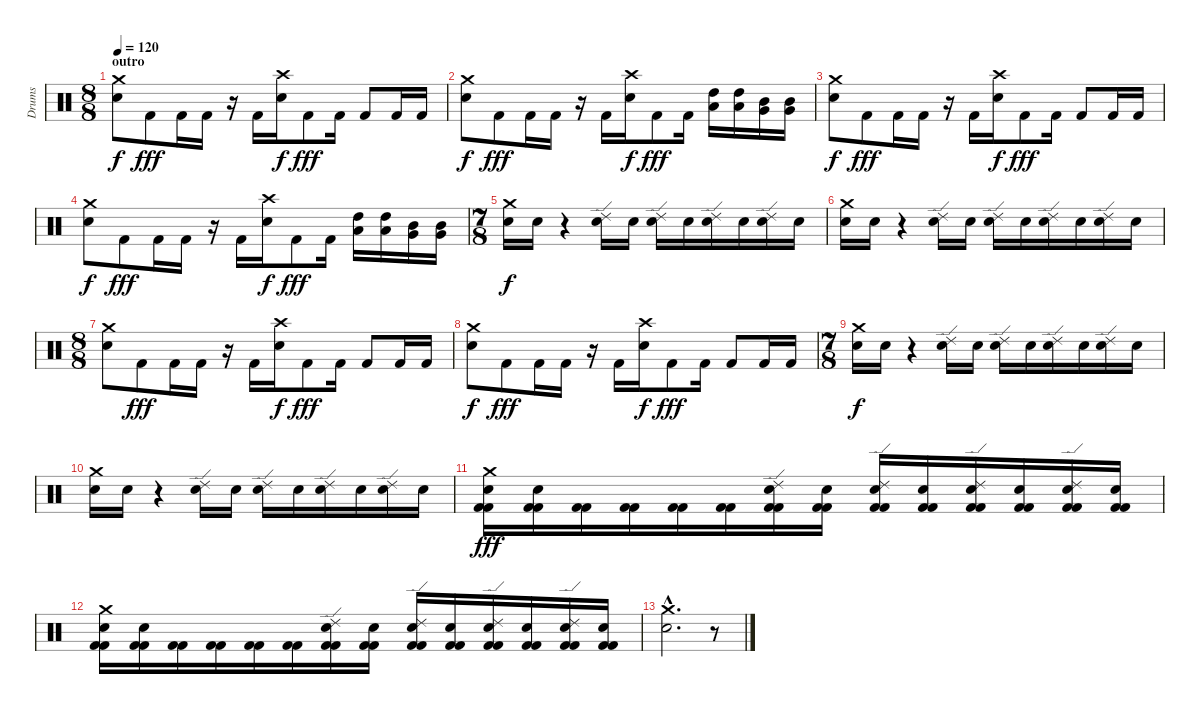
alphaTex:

\track ("Drums" "Drums") {instrument percussion}
\staff {score}
\articulation defaults
\ts (8 8)
\section ("" "outro")
\tempo 120
\clef neutral
\ks c
("Electric Snare (hit)" "Crash medium (hit)").8{dy f} "Kick (hit) 2".8{dy fff} "Kick (hit) 2".16 "Kick (hit) 2".16 r.16 "Kick (hit) 2".16 ("Electric Snare (hit)" "Crash high (hit)").16{dy f} "Kick (hit) 2".8{dy fff} "Kick (hit) 2".16 "Kick (hit) 2".8 "Kick (hit) 2".16 "Kick (hit) 2".16 |
("Electric Snare (hit)" "Crash medium (hit)").8{dy f} "Kick (hit) 2".8{dy fff} "Kick (hit) 2".16 "Kick (hit) 2".16 r.16 "Kick (hit) 2".16 ("Electric Snare (hit)" "Crash high (hit)").16{dy f} "Kick (hit) 2".8{dy fff} "Kick (hit) 2".16 ("High Tom (hit)" "Low Tom (hit)").16 ("High Tom (hit)" "Low Tom (hit)").16 ("Mid Tom (hit)" "Very Low Tom (hit)").16 ("Mid Tom (hit)" "Very Low Tom (hit)").16 |
("Electric Snare (hit)" "Crash medium (hit)").8{dy f} "Kick (hit) 2".8{dy fff} "Kick (hit) 2".16 "Kick (hit) 2".16 r.16 "Kick (hit) 2".16 ("Electric Snare (hit)" "Crash high (hit)").16{dy f} "Kick (hit) 2".8{dy fff} "Kick (hit) 2".16 "Kick (hit) 2".8 "Kick (hit) 2".16 "Kick (hit) 2".16 |
("Electric Snare (hit)" "Crash medium (hit)").8{dy f} "Kick (hit) 2".8{dy fff} "Kick (hit) 2".16 "Kick (hit) 2".16 r.16 "Kick (hit) 2".16 ("Electric Snare (hit)" "Crash high (hit)").16{dy f} "Kick (hit) 2".8{dy fff} "Kick (hit) 2".16 ("High Tom (hit)" "Low Tom (hit)").16 ("High Tom (hit)" "Low Tom (hit)").16 ("Mid Tom (hit)" "Very Low Tom (hit)").16 ("Mid Tom (hit)" "Very Low Tom (hit)").16 |
\ts (7 8)
("Snare (hit) 2" "Crash medium (hit)").16{dy f} "Snare (hit) 2".16 r.4 ("Electric Snare (hit)" "Ride (edge) 2").16 "Electric Snare (hit)".16 ("Snare (hit) 2" "Ride (edge) 2").16 "Snare (hit) 2".16 ("Electric Snare (hit)" "Ride (edge) 2").16 "Electric Snare (hit)".16 ("Snare (hit) 2" "Ride (edge) 2").16 "Snare (hit) 2".16 |
("Snare (hit) 2" "Crash medium (hit)").16 "Snare (hit) 2".16 r.4 ("Electric Snare (hit)" "Ride (edge) 2").16 "Electric Snare (hit)".16 ("Snare (hit) 2" "Ride (edge) 2").16 "Snare (hit) 2".16 ("Electric Snare (hit)" "Ride (edge) 2").16 "Electric Snare (hit)".16 ("Snare (hit) 2" "Ride (edge) 2").16 "Snare (hit) 2".16 |
\ts (8 8)
("Electric Snare (hit)" "Crash medium (hit)").8 "Kick (hit) 2".8{dy fff} "Kick (hit) 2".16 "Kick (hit) 2".16 r.16 "Kick (hit) 2".16 ("Electric Snare (hit)" "Crash high (hit)").16{dy f} "Kick (hit) 2".8{dy fff} "Kick (hit) 2".16 "Kick (hit) 2".8 "Kick (hit) 2".16 "Kick (hit) 2".16 |
("Electric Snare (hit)" "Crash medium (hit)").8{dy f} "Kick (hit) 2".8{dy fff} "Kick (hit) 2".16 "Kick (hit) 2".16 r.16 "Kick (hit) 2".16 ("Electric Snare (hit)" "Crash high (hit)").16{dy f} "Kick (hit) 2".8{dy fff} "Kick (hit) 2".16 "Kick (hit) 2".8 "Kick (hit) 2".16 "Kick (hit) 2".16 |
\ts (7 8)
("Snare (hit) 2" "Crash medium (hit)").16{dy f} "Snare (hit) 2".16 r.4 ("Electric Snare (hit)" "Ride (edge) 2").16 "Electric Snare (hit)".16 ("Snare (hit) 2" "Ride (edge) 2").16 "Snare (hit) 2".16 ("Electric Snare (hit)" "Ride (edge) 2").16 "Electric Snare (hit)".16 ("Snare (hit) 2" "Ride (edge) 2").16 "Snare (hit) 2".16 |
("Snare (hit) 2" "Crash medium (hit)").16 "Snare (hit) 2".16 r.4 ("Electric Snare (hit)" "Ride (edge) 2").16 "Electric Snare (hit)".16 ("Snare (hit) 2" "Ride (edge) 2").16 "Snare (hit) 2".16 ("Electric Snare (hit)" "Ride (edge) 2").16 "Electric Snare (hit)".16 ("Snare (hit) 2" "Ride (edge) 2").16 "Snare (hit) 2".16 |
("Snare (hit) 2" "Crash medium (hit)" "Kick (hit) 2" "Kick (hit) 2").16{dy fff} ("Snare (hit) 2" "Kick (hit) 2" "Kick (hit) 2").16 ("Kick (hit) 2" "Kick (hit) 2").16 ("Kick (hit) 2" "Kick (hit) 2").16 ("Kick (hit) 2" "Kick (hit) 2").16 ("Kick (hit) 2" "Kick (hit) 2").16 ("Electric Snare (hit)" "Ride (edge) 2" "Kick (hit) 2" "Kick (hit) 2").16 ("Electric Snare (hit)" "Kick (hit) 2" "Kick (hit) 2").16 ("Snare (hit) 2" "Ride (edge) 2" "Kick (hit) 2" "Kick (hit) 2").16 ("Snare (hit) 2" "Kick (hit) 2" "Kick (hit) 2").16 ("Electric Snare (hit)" "Ride (edge) 2" "Kick (hit) 2" "Kick (hit) 2").16 ("Electric Snare (hit)" "Kick (hit) 2" "Kick (hit) 2").16 ("Snare (hit) 2" "Ride (edge) 2" "Kick (hit) 2" "Kick (hit) 2").16 ("Snare (hit) 2" "Kick (hit) 2" "Kick (hit) 2").16 |
("Snare (hit) 2" "Crash medium (hit)" "Kick (hit) 2" "Kick (hit) 2").16 ("Snare (hit) 2" "Kick (hit) 2" "Kick (hit) 2").16 ("Kick (hit) 2" "Kick (hit) 2").16 ("Kick (hit) 2" "Kick (hit) 2").16 ("Kick (hit) 2" "Kick (hit) 2").16 ("Kick (hit) 2" "Kick (hit) 2").16 ("Electric Snare (hit)" "Ride (edge) 2" "Kick (hit) 2" "Kick (hit) 2").16 ("Electric Snare (hit)" "Kick (hit) 2" "Kick (hit) 2").16 ("Snare (hit) 2" "Ride (edge) 2" "Kick (hit) 2" "Kick (hit) 2").16 ("Snare (hit) 2" "Kick (hit) 2" "Kick (hit) 2").16 ("Electric Snare (hit)" "Ride (edge) 2" "Kick (hit) 2" "Kick (hit) 2").16 ("Electric Snare (hit)" "Kick (hit) 2" "Kick (hit) 2").16 ("Snare (hit) 2" "Ride (edge) 2" "Kick (hit) 2" "Kick (hit) 2").16 ("Snare (hit) 2" "Kick (hit) 2" "Kick (hit) 2").16 |
("Electric Snare (hit)"{hac} "Crash medium (hit)"{hac}).2{d} r.8
